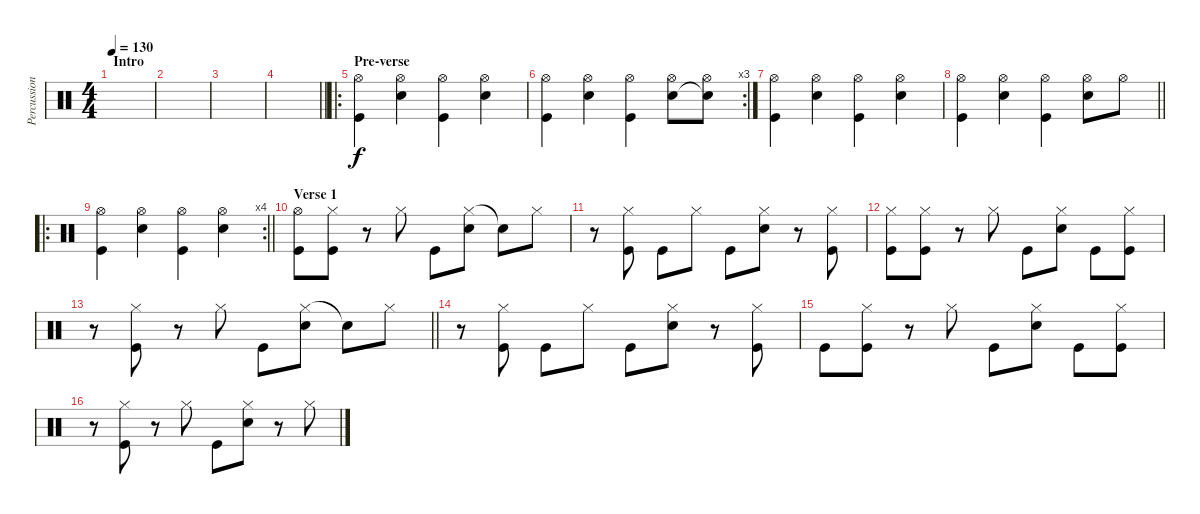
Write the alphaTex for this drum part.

\track ("Percussion" "Percussion") {instrument percussion}
\staff {score}
\articulation defaults
\ts (4 4)
\section ("" "Intro")
\tempo 130
\clef neutral
\ks c
|
|
|
\barLineRight lightlight
|
\ro
\section ("" "Pre-verse")
("Hi-Hat (open)" "Kick (hit)").4 ("Hi-Hat (open)" "Snare (hit) 2").4 ("Hi-Hat (open)" "Kick (hit)").4 ("Hi-Hat (open)" "Snare (hit) 2").4 |
\rc 3
("Hi-Hat (open)" "Kick (hit)").4 ("Hi-Hat (open)" "Snare (hit) 2").4 ("Hi-Hat (open)" "Kick (hit)").4 ("Hi-Hat (open)" "Snare (hit) 2").8 ("Hi-Hat (open)" "Snare (hit)"{t}).8 |
("Hi-Hat (open)" "Kick (hit)").4 ("Hi-Hat (open)" "Snare (hit) 2").4 ("Hi-Hat (open)" "Kick (hit)").4 ("Hi-Hat (open)" "Snare (hit) 2").4 |
\barLineRight lightlight
("Hi-Hat (open)" "Kick (hit)").4 ("Hi-Hat (open)" "Snare (hit) 2").4 ("Hi-Hat (open)" "Kick (hit)").4 ("Hi-Hat (open)" "Snare (hit) 2").8 "Hi-Hat (open)".8 |
\ro
\rc 4
\barLineRight lightlight
("Hi-Hat (open)" "Kick (hit)").4 ("Hi-Hat (open)" "Snare (hit) 2").4 ("Hi-Hat (open)" "Kick (hit)").4 ("Hi-Hat (open)" "Snare (hit) 2").4 |
\section ("" "Verse 1")
("Hi-Hat (open)" "Kick (hit)").8 ("Hi-Hat (closed)" "Kick (hit)").8 r.8 "Hi-Hat (closed)".8 "Kick (hit)".8 ("Hi-Hat (closed)" "Snare (hit) 2").8 "Snare (hit)"{t}.8 "Hi-Hat (closed)".8 |
r.8 ("Hi-Hat (closed)" "Kick (hit)").8 "Kick (hit)".8 "Hi-Hat (closed)".8 "Kick (hit)".8 ("Hi-Hat (closed)" "Snare (hit) 2").8 r.8 ("Hi-Hat (closed)" "Kick (hit)").8 |
("Hi-Hat (closed)" "Kick (hit)").8 ("Hi-Hat (closed)" "Kick (hit)").8 r.8 "Hi-Hat (closed)".8 "Kick (hit)".8 ("Hi-Hat (closed)" "Snare (hit) 2").8 "Kick (hit)".8 ("Hi-Hat (closed)" "Kick (hit)").8 |
\barLineRight lightlight
r.8 ("Hi-Hat (closed)" "Kick (hit)").8 r.8 "Hi-Hat (closed)".8 "Kick (hit)".8 ("Hi-Hat (closed)" "Snare (hit) 2").8 "Snare (hit)"{t}.8 "Hi-Hat (closed)".8 |
r.8 ("Hi-Hat (closed)" "Kick (hit)").8 "Kick (hit)".8 "Hi-Hat (closed)".8 "Kick (hit)".8 ("Hi-Hat (closed)" "Snare (hit) 2").8 r.8 ("Hi-Hat (closed)" "Kick (hit)").8 |
"Kick (hit)".8 ("Hi-Hat (closed)" "Kick (hit)").8 r.8 "Hi-Hat (closed)".8 "Kick (hit)".8 ("Hi-Hat (closed)" "Snare (hit) 2").8 "Kick (hit)".8 ("Hi-Hat (closed)" "Kick (hit)").8 |
r.8 ("Hi-Hat (closed)" "Kick (hit)").8 r.8 "Hi-Hat (closed)".8 "Kick (hit)".8 ("Hi-Hat (closed)" "Snare (hit) 2").8 r.8 "Hi-Hat (closed)".8
